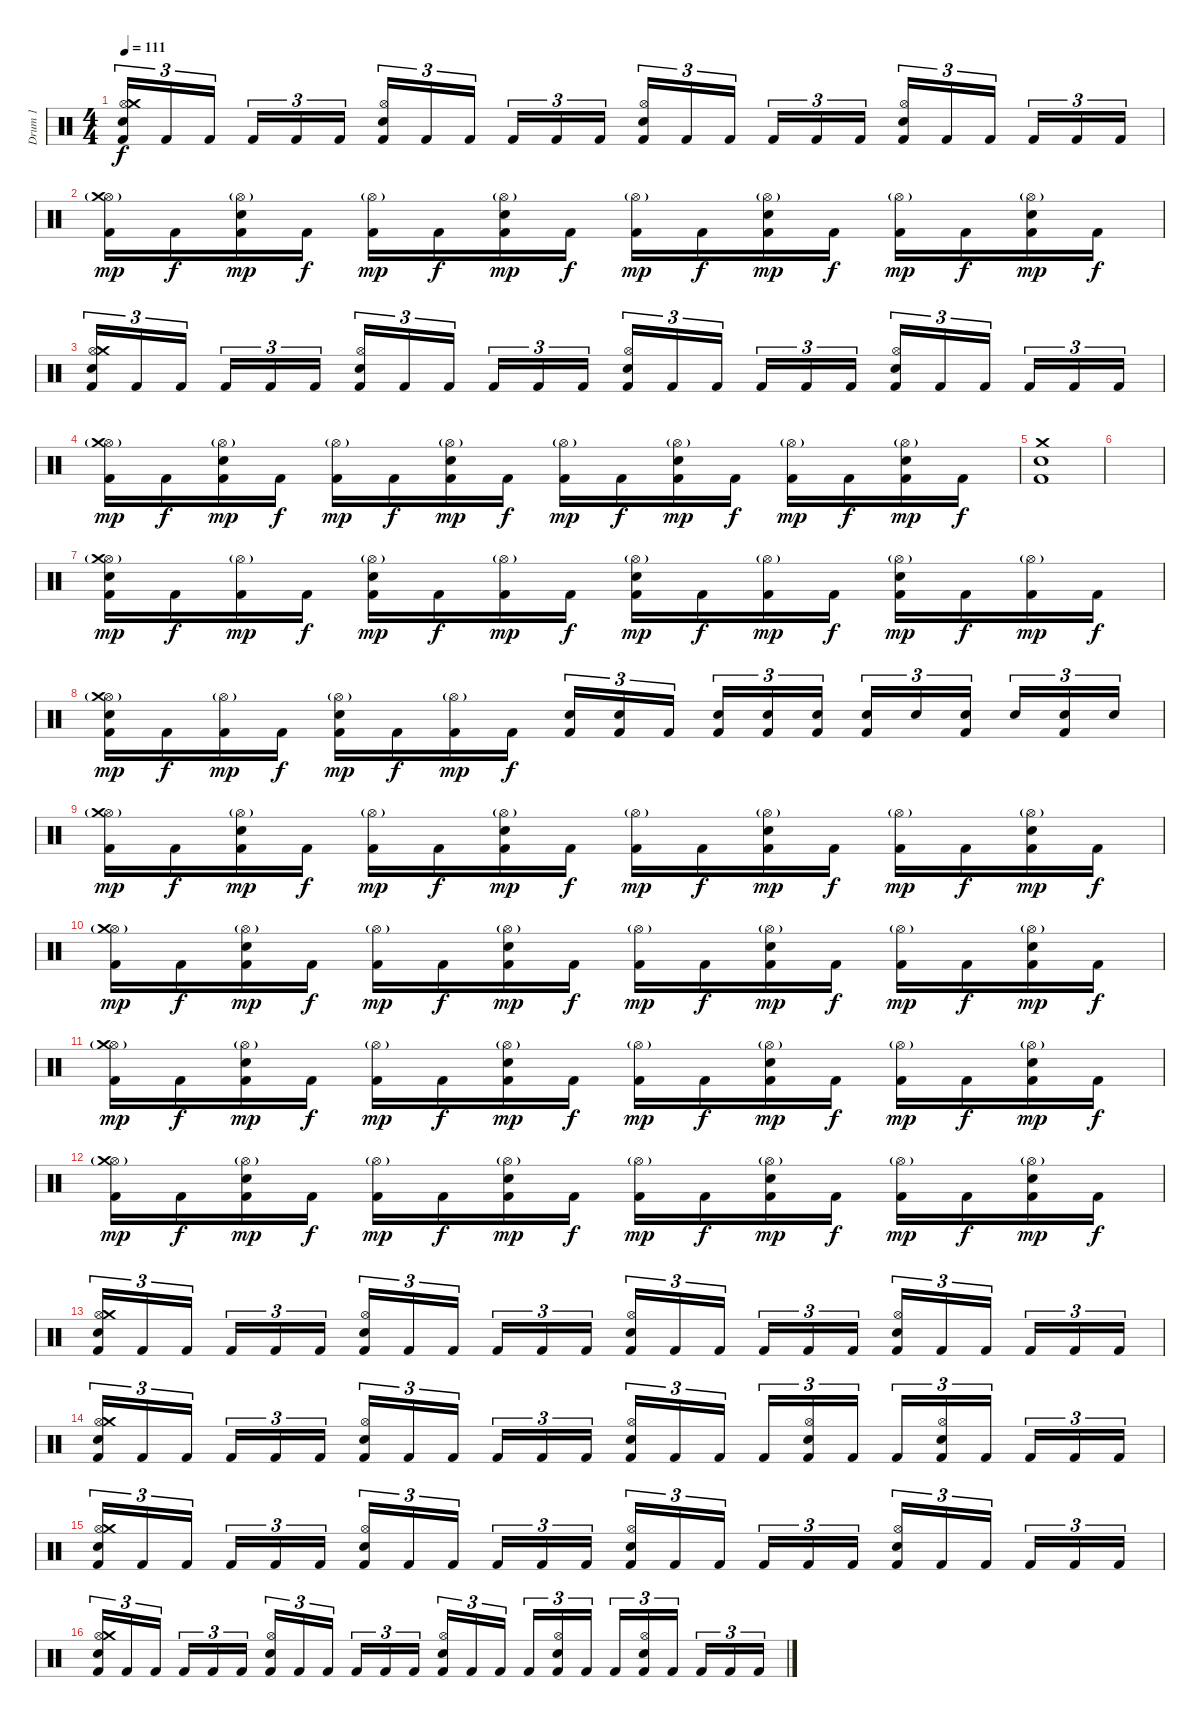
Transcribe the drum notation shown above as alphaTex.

\track ("Drum 1" "Drum 1") {instrument percussion}
\staff {score}
\articulation defaults
\ts (4 4)
\tempo 111
\clef neutral
\ks c
("Kick (hit) 2" "Hi-Hat (open)" "Crash medium (hit)" "Electric Snare (hit)").16{tu (3 2) dy f} "Kick (hit) 2".16{tu (3 2)} "Kick (hit) 2".16{tu (3 2)} "Kick (hit) 2".16{tu (3 2)} "Kick (hit) 2".16{tu (3 2)} "Kick (hit) 2".16{tu (3 2)} ("Kick (hit) 2" "Hi-Hat (open)" "Electric Snare (hit)").16{tu (3 2)} "Kick (hit) 2".16{tu (3 2)} "Kick (hit) 2".16{tu (3 2)} "Kick (hit) 2".16{tu (3 2)} "Kick (hit) 2".16{tu (3 2)} "Kick (hit) 2".16{tu (3 2)} ("Kick (hit) 2" "Hi-Hat (open)" "Electric Snare (hit)").16{tu (3 2)} "Kick (hit) 2".16{tu (3 2)} "Kick (hit) 2".16{tu (3 2)} "Kick (hit) 2".16{tu (3 2)} "Kick (hit) 2".16{tu (3 2)} "Kick (hit) 2".16{tu (3 2)} ("Kick (hit) 2" "Hi-Hat (open)" "Electric Snare (hit)").16{tu (3 2)} "Kick (hit) 2".16{tu (3 2)} "Kick (hit) 2".16{tu (3 2)} "Kick (hit) 2".16{tu (3 2)} "Kick (hit) 2".16{tu (3 2)} "Kick (hit) 2".16{tu (3 2)} |
("Kick (hit) 2" "Hi-Hat (open)"{g} "Crash medium (hit)").16{dy mp} "Kick (hit) 2".16{dy f} ("Kick (hit) 2" "Hi-Hat (open)"{g} "Electric Snare (hit)").16{dy mp} "Kick (hit) 2".16{dy f} ("Kick (hit) 2" "Hi-Hat (open)"{g}).16{dy mp} "Kick (hit) 2".16{dy f} ("Kick (hit) 2" "Hi-Hat (open)"{g} "Electric Snare (hit)").16{dy mp} "Kick (hit) 2".16{dy f} ("Kick (hit) 2" "Hi-Hat (open)"{g}).16{dy mp} "Kick (hit) 2".16{dy f} ("Kick (hit) 2" "Hi-Hat (open)"{g} "Electric Snare (hit)").16{dy mp} "Kick (hit) 2".16{dy f} ("Kick (hit) 2" "Hi-Hat (open)"{g}).16{dy mp} "Kick (hit) 2".16{dy f} ("Kick (hit) 2" "Hi-Hat (open)"{g} "Electric Snare (hit)").16{dy mp} "Kick (hit) 2".16{dy f} |
("Kick (hit) 2" "Hi-Hat (open)" "Crash medium (hit)" "Electric Snare (hit)").16{tu (3 2)} "Kick (hit) 2".16{tu (3 2)} "Kick (hit) 2".16{tu (3 2)} "Kick (hit) 2".16{tu (3 2)} "Kick (hit) 2".16{tu (3 2)} "Kick (hit) 2".16{tu (3 2)} ("Kick (hit) 2" "Hi-Hat (open)" "Electric Snare (hit)").16{tu (3 2)} "Kick (hit) 2".16{tu (3 2)} "Kick (hit) 2".16{tu (3 2)} "Kick (hit) 2".16{tu (3 2)} "Kick (hit) 2".16{tu (3 2)} "Kick (hit) 2".16{tu (3 2)} ("Kick (hit) 2" "Hi-Hat (open)" "Electric Snare (hit)").16{tu (3 2)} "Kick (hit) 2".16{tu (3 2)} "Kick (hit) 2".16{tu (3 2)} "Kick (hit) 2".16{tu (3 2)} "Kick (hit) 2".16{tu (3 2)} "Kick (hit) 2".16{tu (3 2)} ("Kick (hit) 2" "Hi-Hat (open)" "Electric Snare (hit)").16{tu (3 2)} "Kick (hit) 2".16{tu (3 2)} "Kick (hit) 2".16{tu (3 2)} "Kick (hit) 2".16{tu (3 2)} "Kick (hit) 2".16{tu (3 2)} "Kick (hit) 2".16{tu (3 2)} |
("Kick (hit) 2" "Hi-Hat (open)"{g} "Crash medium (hit)").16{dy mp} "Kick (hit) 2".16{dy f} ("Kick (hit) 2" "Hi-Hat (open)"{g} "Electric Snare (hit)").16{dy mp} "Kick (hit) 2".16{dy f} ("Kick (hit) 2" "Hi-Hat (open)"{g}).16{dy mp} "Kick (hit) 2".16{dy f} ("Kick (hit) 2" "Hi-Hat (open)"{g} "Electric Snare (hit)").16{dy mp} "Kick (hit) 2".16{dy f} ("Kick (hit) 2" "Hi-Hat (open)"{g}).16{dy mp} "Kick (hit) 2".16{dy f} ("Kick (hit) 2" "Hi-Hat (open)"{g} "Electric Snare (hit)").16{dy mp} "Kick (hit) 2".16{dy f} ("Kick (hit) 2" "Hi-Hat (open)"{g}).16{dy mp} "Kick (hit) 2".16{dy f} ("Kick (hit) 2" "Hi-Hat (open)"{g} "Electric Snare (hit)").16{dy mp} "Kick (hit) 2".16{dy f} |
("Kick (hit) 2" "Electric Snare (hit)" "Crash medium (hit)").1 |
|
("Kick (hit) 2" "Hi-Hat (open)"{g} "Crash medium (hit)" "Electric Snare (hit)").16{dy mp} "Kick (hit) 2".16{dy f} ("Kick (hit) 2" "Hi-Hat (open)"{g}).16{dy mp} "Kick (hit) 2".16{dy f} ("Kick (hit) 2" "Hi-Hat (open)"{g} "Electric Snare (hit)").16{dy mp} "Kick (hit) 2".16{dy f} ("Kick (hit) 2" "Hi-Hat (open)"{g}).16{dy mp} "Kick (hit) 2".16{dy f} ("Kick (hit) 2" "Hi-Hat (open)"{g} "Electric Snare (hit)").16{dy mp} "Kick (hit) 2".16{dy f} ("Kick (hit) 2" "Hi-Hat (open)"{g}).16{dy mp} "Kick (hit) 2".16{dy f} ("Kick (hit) 2" "Hi-Hat (open)"{g} "Electric Snare (hit)").16{dy mp} "Kick (hit) 2".16{dy f} ("Kick (hit) 2" "Hi-Hat (open)"{g}).16{dy mp} "Kick (hit) 2".16{dy f} |
("Kick (hit) 2" "Hi-Hat (open)"{g} "Crash medium (hit)" "Electric Snare (hit)").16{dy mp} "Kick (hit) 2".16{dy f} ("Kick (hit) 2" "Hi-Hat (open)"{g}).16{dy mp} "Kick (hit) 2".16{dy f} ("Kick (hit) 2" "Hi-Hat (open)"{g} "Electric Snare (hit)").16{dy mp} "Kick (hit) 2".16{dy f} ("Kick (hit) 2" "Hi-Hat (open)"{g}).16{dy mp} "Kick (hit) 2".16{dy f} ("Kick (hit) 2" "Electric Snare (hit)").16{tu (3 2)} ("Kick (hit) 2" "Electric Snare (hit)").16{tu (3 2)} "Kick (hit) 2".16{tu (3 2)} ("Kick (hit) 2" "Electric Snare (hit)").16{tu (3 2)} ("Kick (hit) 2" "Electric Snare (hit)").16{tu (3 2)} ("Kick (hit) 2" "Electric Snare (hit)").16{tu (3 2)} ("Kick (hit) 2" "Electric Snare (hit)").16{tu (3 2)} "Electric Snare (hit)".16{tu (3 2)} ("Kick (hit) 2" "Electric Snare (hit)").16{tu (3 2)} "Electric Snare (hit)".16{tu (3 2)} ("Kick (hit) 2" "Electric Snare (hit)").16{tu (3 2)} "Electric Snare (hit)".16{tu (3 2)} |
("Kick (hit) 2" "Hi-Hat (open)"{g} "Crash medium (hit)").16{dy mp} "Kick (hit) 2".16{dy f} ("Kick (hit) 2" "Hi-Hat (open)"{g} "Electric Snare (hit)").16{dy mp} "Kick (hit) 2".16{dy f} ("Kick (hit) 2" "Hi-Hat (open)"{g}).16{dy mp} "Kick (hit) 2".16{dy f} ("Kick (hit) 2" "Hi-Hat (open)"{g} "Electric Snare (hit)").16{dy mp} "Kick (hit) 2".16{dy f} ("Kick (hit) 2" "Hi-Hat (open)"{g}).16{dy mp} "Kick (hit) 2".16{dy f} ("Kick (hit) 2" "Hi-Hat (open)"{g} "Electric Snare (hit)").16{dy mp} "Kick (hit) 2".16{dy f} ("Kick (hit) 2" "Hi-Hat (open)"{g}).16{dy mp} "Kick (hit) 2".16{dy f} ("Kick (hit) 2" "Hi-Hat (open)"{g} "Electric Snare (hit)").16{dy mp} "Kick (hit) 2".16{dy f} |
("Kick (hit) 2" "Hi-Hat (open)"{g} "Crash medium (hit)").16{dy mp} "Kick (hit) 2".16{dy f} ("Kick (hit) 2" "Hi-Hat (open)"{g} "Electric Snare (hit)").16{dy mp} "Kick (hit) 2".16{dy f} ("Kick (hit) 2" "Hi-Hat (open)"{g}).16{dy mp} "Kick (hit) 2".16{dy f} ("Kick (hit) 2" "Hi-Hat (open)"{g} "Electric Snare (hit)").16{dy mp} "Kick (hit) 2".16{dy f} ("Kick (hit) 2" "Hi-Hat (open)"{g}).16{dy mp} "Kick (hit) 2".16{dy f} ("Kick (hit) 2" "Hi-Hat (open)"{g} "Electric Snare (hit)").16{dy mp} "Kick (hit) 2".16{dy f} ("Kick (hit) 2" "Hi-Hat (open)"{g}).16{dy mp} "Kick (hit) 2".16{dy f} ("Kick (hit) 2" "Hi-Hat (open)"{g} "Electric Snare (hit)").16{dy mp} "Kick (hit) 2".16{dy f} |
("Kick (hit) 2" "Hi-Hat (open)"{g} "Crash medium (hit)").16{dy mp} "Kick (hit) 2".16{dy f} ("Kick (hit) 2" "Hi-Hat (open)"{g} "Electric Snare (hit)").16{dy mp} "Kick (hit) 2".16{dy f} ("Kick (hit) 2" "Hi-Hat (open)"{g}).16{dy mp} "Kick (hit) 2".16{dy f} ("Kick (hit) 2" "Hi-Hat (open)"{g} "Electric Snare (hit)").16{dy mp} "Kick (hit) 2".16{dy f} ("Kick (hit) 2" "Hi-Hat (open)"{g}).16{dy mp} "Kick (hit) 2".16{dy f} ("Kick (hit) 2" "Hi-Hat (open)"{g} "Electric Snare (hit)").16{dy mp} "Kick (hit) 2".16{dy f} ("Kick (hit) 2" "Hi-Hat (open)"{g}).16{dy mp} "Kick (hit) 2".16{dy f} ("Kick (hit) 2" "Hi-Hat (open)"{g} "Electric Snare (hit)").16{dy mp} "Kick (hit) 2".16{dy f} |
("Kick (hit) 2" "Hi-Hat (open)"{g} "Crash medium (hit)").16{dy mp} "Kick (hit) 2".16{dy f} ("Kick (hit) 2" "Hi-Hat (open)"{g} "Electric Snare (hit)").16{dy mp} "Kick (hit) 2".16{dy f} ("Kick (hit) 2" "Hi-Hat (open)"{g}).16{dy mp} "Kick (hit) 2".16{dy f} ("Kick (hit) 2" "Hi-Hat (open)"{g} "Electric Snare (hit)").16{dy mp} "Kick (hit) 2".16{dy f} ("Kick (hit) 2" "Hi-Hat (open)"{g}).16{dy mp} "Kick (hit) 2".16{dy f} ("Kick (hit) 2" "Hi-Hat (open)"{g} "Electric Snare (hit)").16{dy mp} "Kick (hit) 2".16{dy f} ("Kick (hit) 2" "Hi-Hat (open)"{g}).16{dy mp} "Kick (hit) 2".16{dy f} ("Kick (hit) 2" "Hi-Hat (open)"{g} "Electric Snare (hit)").16{dy mp} "Kick (hit) 2".16{dy f} |
("Kick (hit) 2" "Hi-Hat (open)" "Crash medium (hit)" "Electric Snare (hit)").16{tu (3 2)} "Kick (hit) 2".16{tu (3 2)} "Kick (hit) 2".16{tu (3 2)} "Kick (hit) 2".16{tu (3 2)} "Kick (hit) 2".16{tu (3 2)} "Kick (hit) 2".16{tu (3 2)} ("Kick (hit) 2" "Hi-Hat (open)" "Electric Snare (hit)").16{tu (3 2)} "Kick (hit) 2".16{tu (3 2)} "Kick (hit) 2".16{tu (3 2)} "Kick (hit) 2".16{tu (3 2)} "Kick (hit) 2".16{tu (3 2)} "Kick (hit) 2".16{tu (3 2)} ("Kick (hit) 2" "Hi-Hat (open)" "Electric Snare (hit)").16{tu (3 2)} "Kick (hit) 2".16{tu (3 2)} "Kick (hit) 2".16{tu (3 2)} "Kick (hit) 2".16{tu (3 2)} "Kick (hit) 2".16{tu (3 2)} "Kick (hit) 2".16{tu (3 2)} ("Kick (hit) 2" "Hi-Hat (open)" "Electric Snare (hit)").16{tu (3 2)} "Kick (hit) 2".16{tu (3 2)} "Kick (hit) 2".16{tu (3 2)} "Kick (hit) 2".16{tu (3 2)} "Kick (hit) 2".16{tu (3 2)} "Kick (hit) 2".16{tu (3 2)} |
("Kick (hit) 2" "Hi-Hat (open)" "Crash medium (hit)" "Electric Snare (hit)").16{tu (3 2)} "Kick (hit) 2".16{tu (3 2)} "Kick (hit) 2".16{tu (3 2)} "Kick (hit) 2".16{tu (3 2)} "Kick (hit) 2".16{tu (3 2)} "Kick (hit) 2".16{tu (3 2)} ("Kick (hit) 2" "Hi-Hat (open)" "Electric Snare (hit)").16{tu (3 2)} "Kick (hit) 2".16{tu (3 2)} "Kick (hit) 2".16{tu (3 2)} "Kick (hit) 2".16{tu (3 2)} "Kick (hit) 2".16{tu (3 2)} "Kick (hit) 2".16{tu (3 2)} ("Kick (hit) 2" "Hi-Hat (open)" "Electric Snare (hit)").16{tu (3 2)} "Kick (hit) 2".16{tu (3 2)} "Kick (hit) 2".16{tu (3 2)} "Kick (hit) 2".16{tu (3 2)} ("Kick (hit) 2" "Electric Snare (hit)" "Hi-Hat (open)").16{tu (3 2)} "Kick (hit) 2".16{tu (3 2)} "Kick (hit) 2".16{tu (3 2)} ("Kick (hit) 2" "Hi-Hat (open)" "Electric Snare (hit)").16{tu (3 2)} "Kick (hit) 2".16{tu (3 2)} "Kick (hit) 2".16{tu (3 2)} "Kick (hit) 2".16{tu (3 2)} "Kick (hit) 2".16{tu (3 2)} |
("Kick (hit) 2" "Hi-Hat (open)" "Crash medium (hit)" "Electric Snare (hit)").16{tu (3 2)} "Kick (hit) 2".16{tu (3 2)} "Kick (hit) 2".16{tu (3 2)} "Kick (hit) 2".16{tu (3 2)} "Kick (hit) 2".16{tu (3 2)} "Kick (hit) 2".16{tu (3 2)} ("Kick (hit) 2" "Hi-Hat (open)" "Electric Snare (hit)").16{tu (3 2)} "Kick (hit) 2".16{tu (3 2)} "Kick (hit) 2".16{tu (3 2)} "Kick (hit) 2".16{tu (3 2)} "Kick (hit) 2".16{tu (3 2)} "Kick (hit) 2".16{tu (3 2)} ("Kick (hit) 2" "Hi-Hat (open)" "Electric Snare (hit)").16{tu (3 2)} "Kick (hit) 2".16{tu (3 2)} "Kick (hit) 2".16{tu (3 2)} "Kick (hit) 2".16{tu (3 2)} "Kick (hit) 2".16{tu (3 2)} "Kick (hit) 2".16{tu (3 2)} ("Kick (hit) 2" "Hi-Hat (open)" "Electric Snare (hit)").16{tu (3 2)} "Kick (hit) 2".16{tu (3 2)} "Kick (hit) 2".16{tu (3 2)} "Kick (hit) 2".16{tu (3 2)} "Kick (hit) 2".16{tu (3 2)} "Kick (hit) 2".16{tu (3 2)} |
("Kick (hit) 2" "Hi-Hat (open)" "Crash medium (hit)" "Electric Snare (hit)").16{tu (3 2)} "Kick (hit) 2".16{tu (3 2)} "Kick (hit) 2".16{tu (3 2)} "Kick (hit) 2".16{tu (3 2)} "Kick (hit) 2".16{tu (3 2)} "Kick (hit) 2".16{tu (3 2)} ("Kick (hit) 2" "Hi-Hat (open)" "Electric Snare (hit)").16{tu (3 2)} "Kick (hit) 2".16{tu (3 2)} "Kick (hit) 2".16{tu (3 2)} "Kick (hit) 2".16{tu (3 2)} "Kick (hit) 2".16{tu (3 2)} "Kick (hit) 2".16{tu (3 2)} ("Kick (hit) 2" "Hi-Hat (open)" "Electric Snare (hit)").16{tu (3 2)} "Kick (hit) 2".16{tu (3 2)} "Kick (hit) 2".16{tu (3 2)} "Kick (hit) 2".16{tu (3 2)} ("Kick (hit) 2" "Electric Snare (hit)" "Hi-Hat (open)").16{tu (3 2)} "Kick (hit) 2".16{tu (3 2)} "Kick (hit) 2".16{tu (3 2)} ("Kick (hit) 2" "Hi-Hat (open)" "Electric Snare (hit)").16{tu (3 2)} "Kick (hit) 2".16{tu (3 2)} "Kick (hit) 2".16{tu (3 2)} "Kick (hit) 2".16{tu (3 2)} "Kick (hit) 2".16{tu (3 2)}
